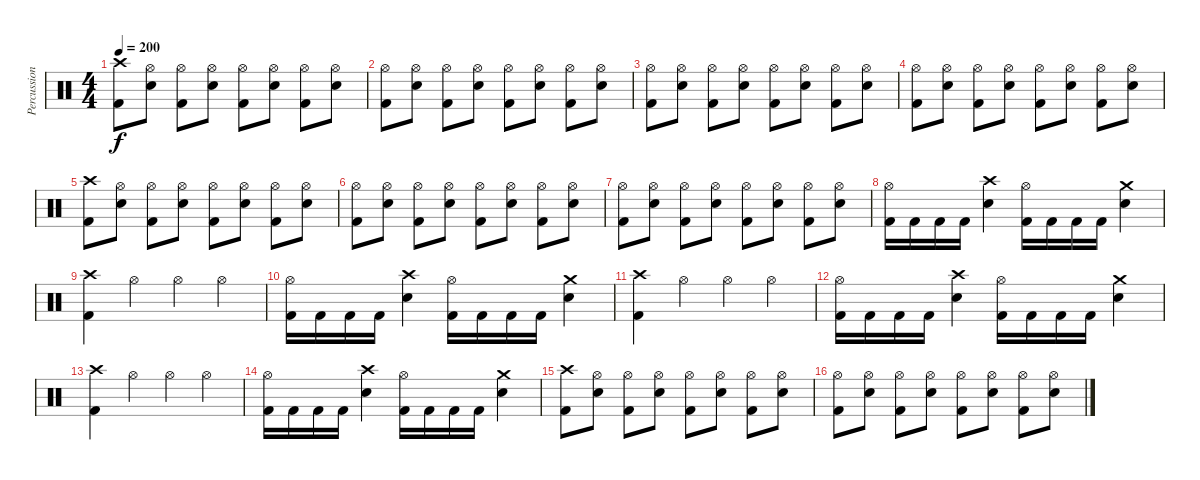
\track ("Percussions" "Percussion") {instrument percussion}
\staff {score}
\articulation defaults
\ts (4 4)
\tempo 200
\clef neutral
\ks c
("Crash high (hit)" "Kick (hit) 2").8{dy f} ("Hi-Hat (open)" "Electric Snare (hit)").8 ("Hi-Hat (open)" "Kick (hit) 2").8 ("Hi-Hat (open)" "Electric Snare (hit)").8 ("Hi-Hat (open)" "Kick (hit) 2").8 ("Hi-Hat (open)" "Electric Snare (hit)").8 ("Hi-Hat (open)" "Kick (hit) 2").8 ("Hi-Hat (open)" "Electric Snare (hit)").8 |
("Hi-Hat (open)" "Kick (hit) 2").8 ("Hi-Hat (open)" "Electric Snare (hit)").8 ("Hi-Hat (open)" "Kick (hit) 2").8 ("Hi-Hat (open)" "Electric Snare (hit)").8 ("Hi-Hat (open)" "Kick (hit) 2").8 ("Hi-Hat (open)" "Electric Snare (hit)").8 ("Hi-Hat (open)" "Kick (hit) 2").8 ("Hi-Hat (open)" "Electric Snare (hit)").8 |
("Hi-Hat (open)" "Kick (hit) 2").8 ("Hi-Hat (open)" "Electric Snare (hit)").8 ("Hi-Hat (open)" "Kick (hit) 2").8 ("Hi-Hat (open)" "Electric Snare (hit)").8 ("Hi-Hat (open)" "Kick (hit) 2").8 ("Hi-Hat (open)" "Electric Snare (hit)").8 ("Hi-Hat (open)" "Kick (hit) 2").8 ("Hi-Hat (open)" "Electric Snare (hit)").8 |
("Hi-Hat (open)" "Kick (hit) 2").8 ("Hi-Hat (open)" "Electric Snare (hit)").8 ("Hi-Hat (open)" "Kick (hit) 2").8 ("Hi-Hat (open)" "Electric Snare (hit)").8 ("Hi-Hat (open)" "Kick (hit) 2").8 ("Hi-Hat (open)" "Electric Snare (hit)").8 ("Hi-Hat (open)" "Kick (hit) 2").8 ("Hi-Hat (open)" "Electric Snare (hit)").8 |
("Crash high (hit)" "Kick (hit) 2").8 ("Hi-Hat (open)" "Electric Snare (hit)").8 ("Hi-Hat (open)" "Kick (hit) 2").8 ("Hi-Hat (open)" "Electric Snare (hit)").8 ("Hi-Hat (open)" "Kick (hit) 2").8 ("Hi-Hat (open)" "Electric Snare (hit)").8 ("Hi-Hat (open)" "Kick (hit) 2").8 ("Hi-Hat (open)" "Electric Snare (hit)").8 |
("Hi-Hat (open)" "Kick (hit) 2").8 ("Hi-Hat (open)" "Electric Snare (hit)").8 ("Hi-Hat (open)" "Kick (hit) 2").8 ("Hi-Hat (open)" "Electric Snare (hit)").8 ("Hi-Hat (open)" "Kick (hit) 2").8 ("Hi-Hat (open)" "Electric Snare (hit)").8 ("Hi-Hat (open)" "Kick (hit) 2").8 ("Hi-Hat (open)" "Electric Snare (hit)").8 |
("Hi-Hat (open)" "Kick (hit) 2").8 ("Hi-Hat (open)" "Electric Snare (hit)").8 ("Hi-Hat (open)" "Kick (hit) 2").8 ("Hi-Hat (open)" "Electric Snare (hit)").8 ("Hi-Hat (open)" "Kick (hit) 2").8 ("Hi-Hat (open)" "Electric Snare (hit)").8 ("Hi-Hat (open)" "Kick (hit) 2").8 ("Hi-Hat (open)" "Electric Snare (hit)").8 |
("Hi-Hat (open)" "Kick (hit) 2").16 "Kick (hit) 2".16 "Kick (hit) 2".16 "Kick (hit) 2".16 ("Crash high (hit)" "Electric Snare (hit)").4 ("Hi-Hat (open)" "Kick (hit) 2").16 "Kick (hit) 2".16 "Kick (hit) 2".16 "Kick (hit) 2".16 ("Crash medium (hit)" "Electric Snare (hit)").4 |
("Crash high (hit)" "Kick (hit) 2").4 "Hi-Hat (open)".4 "Hi-Hat (open)".4 "Hi-Hat (open)".4 |
("Hi-Hat (open)" "Kick (hit) 2").16 "Kick (hit) 2".16 "Kick (hit) 2".16 "Kick (hit) 2".16 ("Crash high (hit)" "Electric Snare (hit)").4 ("Hi-Hat (open)" "Kick (hit) 2").16 "Kick (hit) 2".16 "Kick (hit) 2".16 "Kick (hit) 2".16 ("Crash medium (hit)" "Electric Snare (hit)").4 |
("Crash high (hit)" "Kick (hit) 2").4 "Hi-Hat (open)".4 "Hi-Hat (open)".4 "Hi-Hat (open)".4 |
("Hi-Hat (open)" "Kick (hit) 2").16 "Kick (hit) 2".16 "Kick (hit) 2".16 "Kick (hit) 2".16 ("Crash high (hit)" "Electric Snare (hit)").4 ("Hi-Hat (open)" "Kick (hit) 2").16 "Kick (hit) 2".16 "Kick (hit) 2".16 "Kick (hit) 2".16 ("Crash medium (hit)" "Electric Snare (hit)").4 |
("Crash high (hit)" "Kick (hit) 2").4 "Hi-Hat (open)".4 "Hi-Hat (open)".4 "Hi-Hat (open)".4 |
("Hi-Hat (open)" "Kick (hit) 2").16 "Kick (hit) 2".16 "Kick (hit) 2".16 "Kick (hit) 2".16 ("Crash high (hit)" "Electric Snare (hit)").4 ("Hi-Hat (open)" "Kick (hit) 2").16 "Kick (hit) 2".16 "Kick (hit) 2".16 "Kick (hit) 2".16 ("Crash medium (hit)" "Electric Snare (hit)").4 |
("Crash high (hit)" "Kick (hit) 2").8 ("Hi-Hat (open)" "Electric Snare (hit)").8 ("Hi-Hat (open)" "Kick (hit) 2").8 ("Hi-Hat (open)" "Electric Snare (hit)").8 ("Hi-Hat (open)" "Kick (hit) 2").8 ("Hi-Hat (open)" "Electric Snare (hit)").8 ("Hi-Hat (open)" "Kick (hit) 2").8 ("Hi-Hat (open)" "Electric Snare (hit)").8 |
("Hi-Hat (open)" "Kick (hit) 2").8 ("Hi-Hat (open)" "Electric Snare (hit)").8 ("Hi-Hat (open)" "Kick (hit) 2").8 ("Hi-Hat (open)" "Electric Snare (hit)").8 ("Hi-Hat (open)" "Kick (hit) 2").8 ("Hi-Hat (open)" "Electric Snare (hit)").8 ("Hi-Hat (open)" "Kick (hit) 2").8 ("Hi-Hat (open)" "Electric Snare (hit)").8
